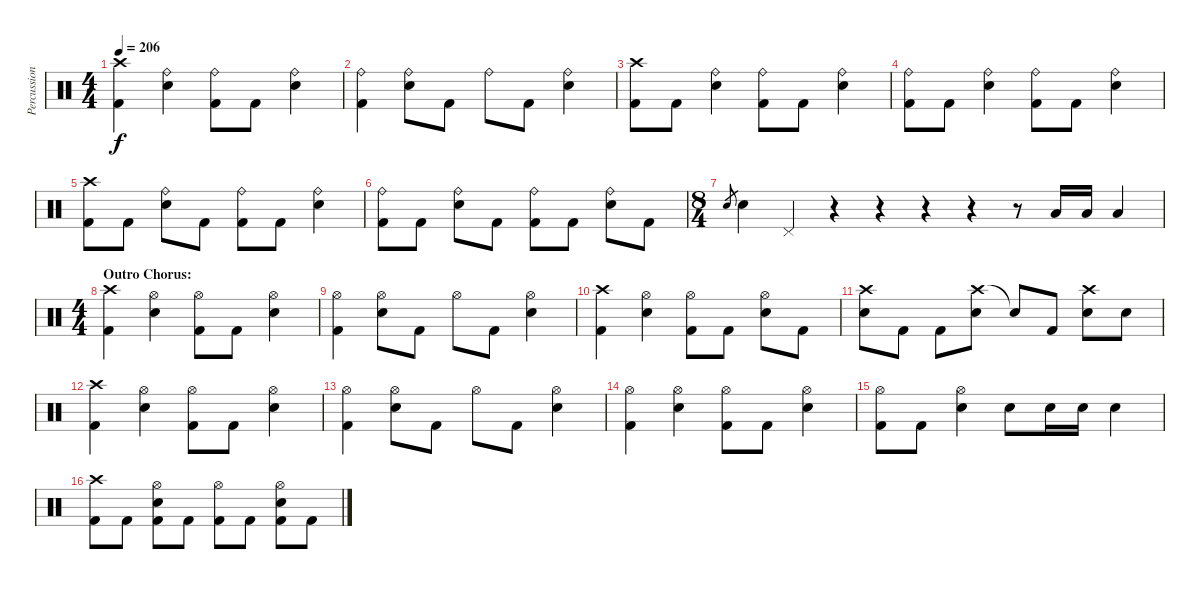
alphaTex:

\track ("Percussion" "Percussion") {instrument percussion}
\staff {score}
\articulation defaults
\ts (4 4)
\tempo 206
\clef neutral
\ks c
("Crash high (hit)" "Kick (hit) 2").4{dy f} ("Ride (bell)" "Snare (hit) 2").4 ("Ride (bell)" "Kick (hit) 2").8 "Kick (hit) 2".8 ("Ride (bell)" "Snare (hit) 2").4 |
("Ride (bell)" "Kick (hit) 2").4 ("Ride (bell)" "Snare (hit) 2").8 "Kick (hit) 2".8 "Ride (bell)".8 "Kick (hit) 2".8 ("Ride (bell)" "Snare (hit) 2").4 |
("Crash high (hit)" "Kick (hit) 2").8 "Kick (hit) 2".8 ("Ride (bell)" "Snare (hit) 2").4 ("Ride (bell)" "Kick (hit) 2").8 "Kick (hit) 2".8 ("Ride (bell)" "Snare (hit) 2").4 |
("Ride (bell)" "Kick (hit) 2").8 "Kick (hit) 2".8 ("Ride (bell)" "Snare (hit) 2").4 ("Ride (bell)" "Kick (hit) 2").8 "Kick (hit) 2".8 ("Ride (bell)" "Snare (hit) 2").4 |
("Crash high (hit)" "Kick (hit) 2").8 "Kick (hit) 2".8 ("Ride (bell)" "Snare (hit) 2").8 "Kick (hit) 2".8 ("Ride (bell)" "Kick (hit) 2").8 "Kick (hit) 2".8 ("Ride (bell)" "Snare (hit) 2").4 |
("Ride (bell)" "Kick (hit) 2").8 "Kick (hit) 2".8 ("Ride (bell)" "Snare (hit) 2").8 "Kick (hit) 2".8 ("Ride (bell)" "Kick (hit) 2").8 "Kick (hit) 2".8 ("Ride (bell)" "Snare (hit) 2").8 "Kick (hit) 2".8 |
\ts (8 4)
"Snare (hit) 2".8{gr} "Snare (hit) 2".4 "Pedal Hi-Hat (hit)".4 r.4 r.4 r.4 r.4 r.8 "Low Tom (hit)".16 "Low Tom (hit)".16 "Low Tom (hit)".4 |
\ts (4 4)
\section ("" "Outro Chorus:")
("Crash high (hit)" "Kick (hit) 2").4 ("Hi-Hat (open)" "Snare (hit) 2").4 ("Hi-Hat (open)" "Kick (hit) 2").8 "Kick (hit) 2".8 ("Hi-Hat (open)" "Snare (hit) 2").4 |
("Hi-Hat (open)" "Kick (hit) 2").4 ("Hi-Hat (open)" "Snare (hit) 2").8 "Kick (hit) 2".8 "Hi-Hat (open)".8 "Kick (hit) 2".8 ("Hi-Hat (open)" "Snare (hit) 2").4 |
("Crash high (hit)" "Kick (hit) 2").4 ("Hi-Hat (open)" "Snare (hit) 2").4 ("Hi-Hat (open)" "Kick (hit) 2").8 "Kick (hit) 2".8 ("Hi-Hat (open)" "Snare (hit) 2").8 "Kick (hit) 2".8 |
("Crash high (hit)" "Snare (hit) 2").8 "Kick (hit) 2".8 "Kick (hit) 2".8 ("Crash high (hit)" "Snare (hit) 2").8 "Snare (hit)"{t}.8 "Kick (hit) 2".8 ("Crash high (hit)" "Snare (hit) 2").8 "Snare (hit) 2".8 |
("Crash high (hit)" "Kick (hit) 2").4 ("Hi-Hat (open)" "Snare (hit) 2").4 ("Hi-Hat (open)" "Kick (hit) 2").8 "Kick (hit) 2".8 ("Hi-Hat (open)" "Snare (hit) 2").4 |
("Hi-Hat (open)" "Kick (hit) 2").4 ("Hi-Hat (open)" "Snare (hit) 2").8 "Kick (hit) 2".8 "Hi-Hat (open)".8 "Kick (hit) 2".8 ("Hi-Hat (open)" "Snare (hit) 2").4 |
("Hi-Hat (open)" "Kick (hit) 2").4 ("Hi-Hat (open)" "Snare (hit) 2").4 ("Hi-Hat (open)" "Kick (hit) 2").8 "Kick (hit) 2".8 ("Hi-Hat (open)" "Snare (hit) 2").4 |
("Hi-Hat (open)" "Kick (hit) 2").8 "Kick (hit) 2".8 ("Hi-Hat (open)" "Snare (hit) 2").4 "Snare (hit) 2".8 "Snare (hit) 2".16 "Snare (hit) 2".16 "Snare (hit) 2".4 |
("Crash high (hit)" "Kick (hit) 2").8 "Kick (hit) 2".8 ("Hi-Hat (open)" "Snare (hit) 2" "Kick (hit) 2").8 "Kick (hit) 2".8 ("Hi-Hat (open)" "Kick (hit) 2").8 "Kick (hit) 2".8 ("Hi-Hat (open)" "Snare (hit) 2" "Kick (hit) 2").8 "Kick (hit) 2".8
